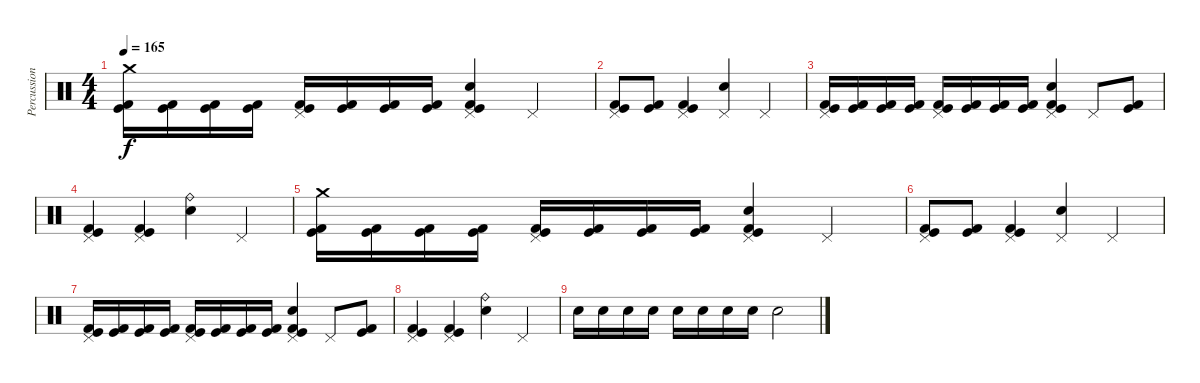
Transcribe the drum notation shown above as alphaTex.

\track ("Percussions" "Percussion") {instrument percussion}
\staff {score}
\articulation defaults
\ts (4 4)
\tempo 165
\clef neutral
\ks c
("Crash medium (hit)" "Kick (hit)" "Kick (hit) 2").16{dy f} ("Kick (hit)" "Kick (hit) 2").16 ("Kick (hit)" "Kick (hit) 2").16 ("Kick (hit)" "Kick (hit) 2").16 ("Pedal Hi-Hat (hit)" "Kick (hit)" "Kick (hit) 2").16 ("Kick (hit)" "Kick (hit) 2").16 ("Kick (hit)" "Kick (hit) 2").16 ("Kick (hit)" "Kick (hit) 2").16 ("Pedal Hi-Hat (hit)" "Electric Snare (hit)" "Kick (hit)" "Kick (hit) 2").4 "Pedal Hi-Hat (hit)".4 |
("Pedal Hi-Hat (hit)" "Kick (hit)" "Kick (hit) 2").8 ("Kick (hit)" "Kick (hit) 2").8 ("Pedal Hi-Hat (hit)" "Kick (hit)" "Kick (hit) 2").4 ("Pedal Hi-Hat (hit)" "Electric Snare (hit)").4 "Pedal Hi-Hat (hit)".4 |
("Pedal Hi-Hat (hit)" "Kick (hit)" "Kick (hit) 2").16 ("Kick (hit)" "Kick (hit) 2").16 ("Kick (hit)" "Kick (hit) 2").16 ("Kick (hit)" "Kick (hit) 2").16 ("Pedal Hi-Hat (hit)" "Kick (hit)" "Kick (hit) 2").16 ("Kick (hit)" "Kick (hit) 2").16 ("Kick (hit)" "Kick (hit) 2").16 ("Kick (hit)" "Kick (hit) 2").16 ("Pedal Hi-Hat (hit)" "Electric Snare (hit)" "Kick (hit)" "Kick (hit) 2").4 "Pedal Hi-Hat (hit)".8 ("Kick (hit)" "Kick (hit) 2").8 |
("Pedal Hi-Hat (hit)" "Kick (hit)" "Kick (hit) 2").4 ("Pedal Hi-Hat (hit)" "Kick (hit)" "Kick (hit) 2").4 ("Ride (bell)" "Electric Snare (hit)").4 "Pedal Hi-Hat (hit)".4 |
("Crash medium (hit)" "Kick (hit)" "Kick (hit) 2").16 ("Kick (hit)" "Kick (hit) 2").16 ("Kick (hit)" "Kick (hit) 2").16 ("Kick (hit)" "Kick (hit) 2").16 ("Pedal Hi-Hat (hit)" "Kick (hit)" "Kick (hit) 2").16 ("Kick (hit)" "Kick (hit) 2").16 ("Kick (hit)" "Kick (hit) 2").16 ("Kick (hit)" "Kick (hit) 2").16 ("Pedal Hi-Hat (hit)" "Electric Snare (hit)" "Kick (hit)" "Kick (hit) 2").4 "Pedal Hi-Hat (hit)".4 |
("Pedal Hi-Hat (hit)" "Kick (hit)" "Kick (hit) 2").8 ("Kick (hit)" "Kick (hit) 2").8 ("Pedal Hi-Hat (hit)" "Kick (hit)" "Kick (hit) 2").4 ("Pedal Hi-Hat (hit)" "Electric Snare (hit)").4 "Pedal Hi-Hat (hit)".4 |
("Pedal Hi-Hat (hit)" "Kick (hit)" "Kick (hit) 2").16 ("Kick (hit)" "Kick (hit) 2").16 ("Kick (hit)" "Kick (hit) 2").16 ("Kick (hit)" "Kick (hit) 2").16 ("Pedal Hi-Hat (hit)" "Kick (hit)" "Kick (hit) 2").16 ("Kick (hit)" "Kick (hit) 2").16 ("Kick (hit)" "Kick (hit) 2").16 ("Kick (hit)" "Kick (hit) 2").16 ("Pedal Hi-Hat (hit)" "Electric Snare (hit)" "Kick (hit)" "Kick (hit) 2").4 "Pedal Hi-Hat (hit)".8 ("Kick (hit)" "Kick (hit) 2").8 |
("Pedal Hi-Hat (hit)" "Kick (hit)" "Kick (hit) 2").4 ("Pedal Hi-Hat (hit)" "Kick (hit)" "Kick (hit) 2").4 ("Ride (bell)" "Electric Snare (hit)").4 "Pedal Hi-Hat (hit)".4 |
"Electric Snare (hit)".16 "Electric Snare (hit)".16 "Electric Snare (hit)".16 "Electric Snare (hit)".16 "Electric Snare (hit)".16 "Electric Snare (hit)".16 "Electric Snare (hit)".16 "Electric Snare (hit)".16 "Electric Snare (hit)".2
